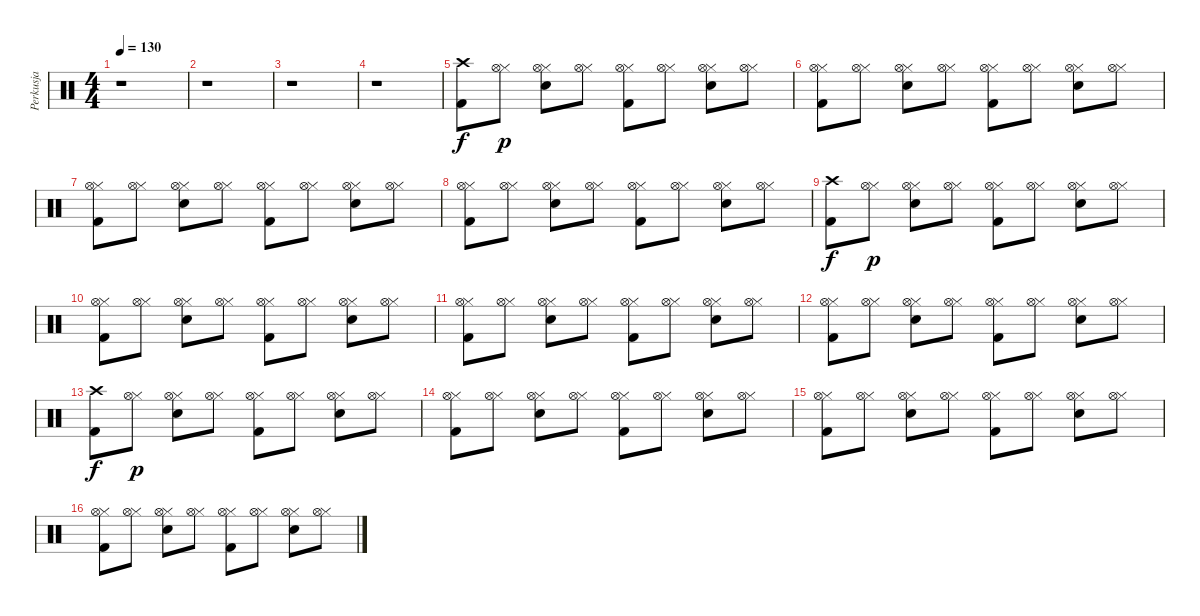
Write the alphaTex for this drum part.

\track ("Perkusja" "Perkusja") {instrument percussion}
\staff {score}
\articulation defaults
\ts (4 4)
\tempo 130
\clef neutral
\ks c
r.1{dy f} |
r.1 |
r.1 |
r.1 |
("Kick (hit) 2" "Crash high (hit)").8 ("Hi-Hat (closed)" "Hi-Hat (open)").8{dy p} ("Electric Snare (hit)" "Hi-Hat (closed)" "Hi-Hat (open)").8 ("Hi-Hat (closed)" "Hi-Hat (open)").8 ("Kick (hit) 2" "Hi-Hat (closed)" "Hi-Hat (open)").8 ("Hi-Hat (closed)" "Hi-Hat (open)").8 ("Electric Snare (hit)" "Hi-Hat (closed)" "Hi-Hat (open)").8 ("Hi-Hat (closed)" "Hi-Hat (open)").8 |
("Kick (hit) 2" "Hi-Hat (closed)" "Hi-Hat (open)").8 ("Hi-Hat (closed)" "Hi-Hat (open)").8 ("Electric Snare (hit)" "Hi-Hat (closed)" "Hi-Hat (open)").8 ("Hi-Hat (closed)" "Hi-Hat (open)").8 ("Kick (hit) 2" "Hi-Hat (closed)" "Hi-Hat (open)").8 ("Hi-Hat (closed)" "Hi-Hat (open)").8 ("Electric Snare (hit)" "Hi-Hat (closed)" "Hi-Hat (open)").8 ("Hi-Hat (closed)" "Hi-Hat (open)").8 |
("Kick (hit) 2" "Hi-Hat (closed)" "Hi-Hat (open)").8 ("Hi-Hat (closed)" "Hi-Hat (open)").8 ("Electric Snare (hit)" "Hi-Hat (closed)" "Hi-Hat (open)").8 ("Hi-Hat (closed)" "Hi-Hat (open)").8 ("Kick (hit) 2" "Hi-Hat (closed)" "Hi-Hat (open)").8 ("Hi-Hat (closed)" "Hi-Hat (open)").8 ("Electric Snare (hit)" "Hi-Hat (closed)" "Hi-Hat (open)").8 ("Hi-Hat (closed)" "Hi-Hat (open)").8 |
("Kick (hit) 2" "Hi-Hat (closed)" "Hi-Hat (open)").8 ("Hi-Hat (closed)" "Hi-Hat (open)").8 ("Electric Snare (hit)" "Hi-Hat (closed)" "Hi-Hat (open)").8 ("Hi-Hat (closed)" "Hi-Hat (open)").8 ("Kick (hit) 2" "Hi-Hat (closed)" "Hi-Hat (open)").8 ("Hi-Hat (closed)" "Hi-Hat (open)").8 ("Electric Snare (hit)" "Hi-Hat (closed)" "Hi-Hat (open)").8 ("Hi-Hat (closed)" "Hi-Hat (open)").8 |
("Kick (hit) 2" "Crash high (hit)").8{dy f} ("Hi-Hat (closed)" "Hi-Hat (open)").8{dy p} ("Electric Snare (hit)" "Hi-Hat (closed)" "Hi-Hat (open)").8 ("Hi-Hat (closed)" "Hi-Hat (open)").8 ("Kick (hit) 2" "Hi-Hat (closed)" "Hi-Hat (open)").8 ("Hi-Hat (closed)" "Hi-Hat (open)").8 ("Electric Snare (hit)" "Hi-Hat (closed)" "Hi-Hat (open)").8 ("Hi-Hat (closed)" "Hi-Hat (open)").8 |
("Kick (hit) 2" "Hi-Hat (closed)" "Hi-Hat (open)").8 ("Hi-Hat (closed)" "Hi-Hat (open)").8 ("Electric Snare (hit)" "Hi-Hat (closed)" "Hi-Hat (open)").8 ("Hi-Hat (closed)" "Hi-Hat (open)").8 ("Kick (hit) 2" "Hi-Hat (closed)" "Hi-Hat (open)").8 ("Hi-Hat (closed)" "Hi-Hat (open)").8 ("Electric Snare (hit)" "Hi-Hat (closed)" "Hi-Hat (open)").8 ("Hi-Hat (closed)" "Hi-Hat (open)").8 |
("Kick (hit) 2" "Hi-Hat (closed)" "Hi-Hat (open)").8 ("Hi-Hat (closed)" "Hi-Hat (open)").8 ("Electric Snare (hit)" "Hi-Hat (closed)" "Hi-Hat (open)").8 ("Hi-Hat (closed)" "Hi-Hat (open)").8 ("Kick (hit) 2" "Hi-Hat (closed)" "Hi-Hat (open)").8 ("Hi-Hat (closed)" "Hi-Hat (open)").8 ("Electric Snare (hit)" "Hi-Hat (closed)" "Hi-Hat (open)").8 ("Hi-Hat (closed)" "Hi-Hat (open)").8 |
("Kick (hit) 2" "Hi-Hat (closed)" "Hi-Hat (open)").8 ("Hi-Hat (closed)" "Hi-Hat (open)").8 ("Electric Snare (hit)" "Hi-Hat (closed)" "Hi-Hat (open)").8 ("Hi-Hat (closed)" "Hi-Hat (open)").8 ("Kick (hit) 2" "Hi-Hat (closed)" "Hi-Hat (open)").8 ("Hi-Hat (closed)" "Hi-Hat (open)").8 ("Electric Snare (hit)" "Hi-Hat (closed)" "Hi-Hat (open)").8 ("Hi-Hat (closed)" "Hi-Hat (open)").8 |
("Kick (hit) 2" "Crash high (hit)").8{dy f} ("Hi-Hat (closed)" "Hi-Hat (open)").8{dy p} ("Electric Snare (hit)" "Hi-Hat (closed)" "Hi-Hat (open)").8 ("Hi-Hat (closed)" "Hi-Hat (open)").8 ("Kick (hit) 2" "Hi-Hat (closed)" "Hi-Hat (open)").8 ("Hi-Hat (closed)" "Hi-Hat (open)").8 ("Electric Snare (hit)" "Hi-Hat (closed)" "Hi-Hat (open)").8 ("Hi-Hat (closed)" "Hi-Hat (open)").8 |
("Kick (hit) 2" "Hi-Hat (closed)" "Hi-Hat (open)").8 ("Hi-Hat (closed)" "Hi-Hat (open)").8 ("Electric Snare (hit)" "Hi-Hat (closed)" "Hi-Hat (open)").8 ("Hi-Hat (closed)" "Hi-Hat (open)").8 ("Kick (hit) 2" "Hi-Hat (closed)" "Hi-Hat (open)").8 ("Hi-Hat (closed)" "Hi-Hat (open)").8 ("Electric Snare (hit)" "Hi-Hat (closed)" "Hi-Hat (open)").8 ("Hi-Hat (closed)" "Hi-Hat (open)").8 |
("Kick (hit) 2" "Hi-Hat (closed)" "Hi-Hat (open)").8 ("Hi-Hat (closed)" "Hi-Hat (open)").8 ("Electric Snare (hit)" "Hi-Hat (closed)" "Hi-Hat (open)").8 ("Hi-Hat (closed)" "Hi-Hat (open)").8 ("Kick (hit) 2" "Hi-Hat (closed)" "Hi-Hat (open)").8 ("Hi-Hat (closed)" "Hi-Hat (open)").8 ("Electric Snare (hit)" "Hi-Hat (closed)" "Hi-Hat (open)").8 ("Hi-Hat (closed)" "Hi-Hat (open)").8 |
("Kick (hit) 2" "Hi-Hat (closed)" "Hi-Hat (open)").8 ("Hi-Hat (closed)" "Hi-Hat (open)").8 ("Electric Snare (hit)" "Hi-Hat (closed)" "Hi-Hat (open)").8 ("Hi-Hat (closed)" "Hi-Hat (open)").8 ("Kick (hit) 2" "Hi-Hat (closed)" "Hi-Hat (open)").8 ("Hi-Hat (closed)" "Hi-Hat (open)").8 ("Electric Snare (hit)" "Hi-Hat (closed)" "Hi-Hat (open)").8 ("Hi-Hat (closed)" "Hi-Hat (open)").8
